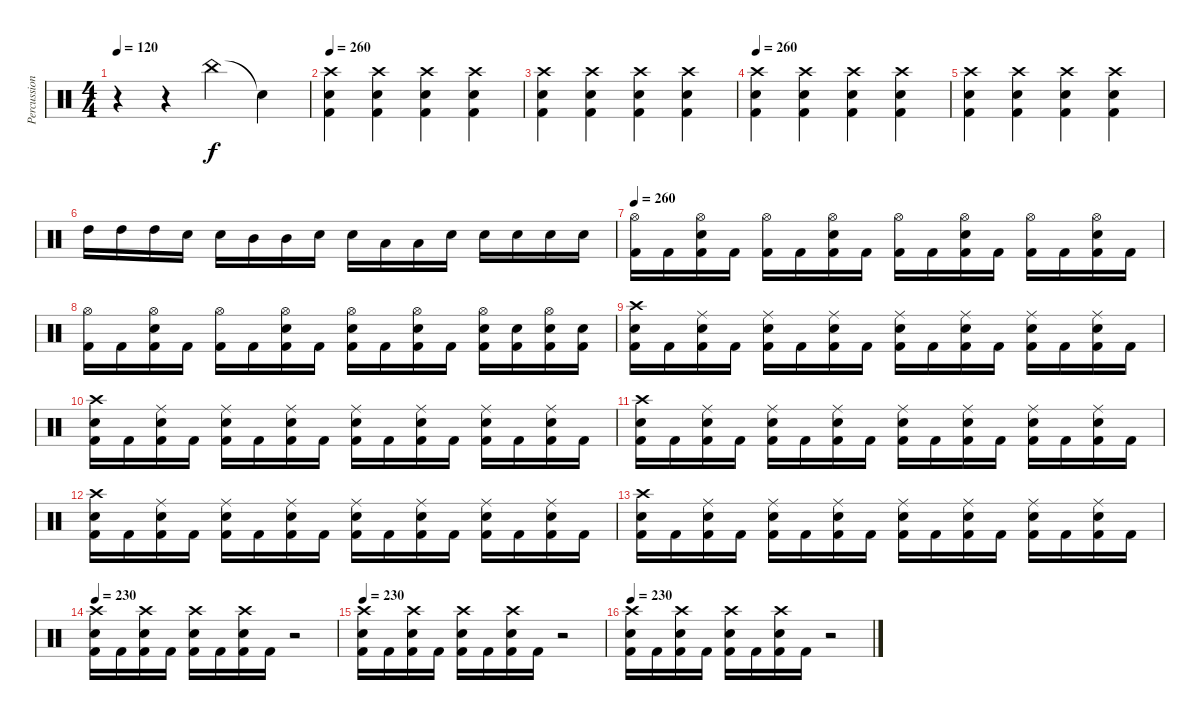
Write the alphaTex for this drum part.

\track ("Percussion" "Percussion") {instrument percussion}
\staff {score}
\articulation defaults
\ts (4 4)
\tempo 120
\clef neutral
\ks c
r.4{dy f} r.4 "China (hit)".4 "Snare (hit)"{t}.4 |
\tempo 260
("Crash high (hit)" "Electric Snare (hit)" "Kick (hit) 2").4 ("Crash high (hit)" "Electric Snare (hit)" "Kick (hit) 2").4 ("Crash high (hit)" "Electric Snare (hit)" "Kick (hit) 2").4 ("Crash high (hit)" "Electric Snare (hit)" "Kick (hit) 2").4 |
("Crash high (hit)" "Electric Snare (hit)" "Kick (hit) 2").4 ("Crash high (hit)" "Electric Snare (hit)" "Kick (hit) 2").4 ("Crash high (hit)" "Electric Snare (hit)" "Kick (hit) 2").4 ("Crash high (hit)" "Electric Snare (hit)" "Kick (hit) 2").4 |
\tempo 260
("Crash high (hit)" "Electric Snare (hit)" "Kick (hit) 2").4 ("Crash high (hit)" "Electric Snare (hit)" "Kick (hit) 2").4 ("Crash high (hit)" "Electric Snare (hit)" "Kick (hit) 2").4 ("Crash high (hit)" "Electric Snare (hit)" "Kick (hit) 2").4 |
("Crash high (hit)" "Electric Snare (hit)" "Kick (hit) 2").4 ("Crash high (hit)" "Electric Snare (hit)" "Kick (hit) 2").4 ("Crash high (hit)" "Electric Snare (hit)" "Kick (hit) 2").4 ("Crash high (hit)" "Electric Snare (hit)" "Kick (hit) 2").4 |
"High Tom (hit)".16 "High Tom (hit)".16 "High Tom (hit)".16 "Electric Snare (hit)".16 "Electric Snare (hit)".16 "Mid Tom (hit)".16 "Mid Tom (hit)".16 "Electric Snare (hit)".16 "Electric Snare (hit)".16 "Low Tom (hit)".16 "Low Tom (hit)".16 "Electric Snare (hit)".16 "Electric Snare (hit)".16 "Electric Snare (hit)".16 "Electric Snare (hit)".16 "Electric Snare (hit)".16 |
\tempo 260
("Hi-Hat (open)" "Kick (hit) 2").16 "Kick (hit) 2".16 ("Hi-Hat (open)" "Electric Snare (hit)" "Kick (hit) 2").16 "Kick (hit) 2".16 ("Hi-Hat (open)" "Kick (hit) 2").16 "Kick (hit) 2".16 ("Hi-Hat (open)" "Electric Snare (hit)" "Kick (hit) 2").16 "Kick (hit) 2".16 ("Hi-Hat (open)" "Kick (hit) 2").16 "Kick (hit) 2".16 ("Hi-Hat (open)" "Electric Snare (hit)" "Kick (hit) 2").16 "Kick (hit) 2".16 ("Hi-Hat (open)" "Kick (hit) 2").16 "Kick (hit) 2".16 ("Hi-Hat (open)" "Electric Snare (hit)" "Kick (hit) 2").16 "Kick (hit) 2".16 |
("Hi-Hat (open)" "Kick (hit) 2").16 "Kick (hit) 2".16 ("Hi-Hat (open)" "Electric Snare (hit)" "Kick (hit) 2").16 "Kick (hit) 2".16 ("Hi-Hat (open)" "Kick (hit) 2").16 "Kick (hit) 2".16 ("Hi-Hat (open)" "Electric Snare (hit)" "Kick (hit) 2").16 "Kick (hit) 2".16 ("Hi-Hat (open)" "Electric Snare (hit)" "Kick (hit) 2").16 "Kick (hit) 2".16 ("Hi-Hat (open)" "Electric Snare (hit)" "Kick (hit) 2").16 "Kick (hit) 2".16 ("Hi-Hat (open)" "Electric Snare (hit)" "Kick (hit) 2").16 ("Electric Snare (hit)" "Kick (hit) 2").16 ("Hi-Hat (open)" "Electric Snare (hit)" "Kick (hit) 2").16 ("Electric Snare (hit)" "Kick (hit) 2").16 |
("Crash high (hit)" "Electric Snare (hit)" "Kick (hit) 2").16 "Kick (hit) 2".16 ("Ride (middle)" "Electric Snare (hit)" "Kick (hit) 2").16 "Kick (hit) 2".16 ("Ride (middle)" "Electric Snare (hit)" "Kick (hit) 2").16 "Kick (hit) 2".16 ("Ride (middle)" "Electric Snare (hit)" "Kick (hit) 2").16 "Kick (hit) 2".16 ("Ride (middle)" "Electric Snare (hit)" "Kick (hit) 2").16 "Kick (hit) 2".16 ("Ride (middle)" "Electric Snare (hit)" "Kick (hit) 2").16 "Kick (hit) 2".16 ("Ride (middle)" "Electric Snare (hit)" "Kick (hit) 2").16 "Kick (hit) 2".16 ("Ride (middle)" "Electric Snare (hit)" "Kick (hit) 2").16 "Kick (hit) 2".16 |
("Crash high (hit)" "Electric Snare (hit)" "Kick (hit) 2").16 "Kick (hit) 2".16 ("Ride (middle)" "Electric Snare (hit)" "Kick (hit) 2").16 "Kick (hit) 2".16 ("Ride (middle)" "Electric Snare (hit)" "Kick (hit) 2").16 "Kick (hit) 2".16 ("Ride (middle)" "Electric Snare (hit)" "Kick (hit) 2").16 "Kick (hit) 2".16 ("Ride (middle)" "Electric Snare (hit)" "Kick (hit) 2").16 "Kick (hit) 2".16 ("Ride (middle)" "Electric Snare (hit)" "Kick (hit) 2").16 "Kick (hit) 2".16 ("Ride (middle)" "Electric Snare (hit)" "Kick (hit) 2").16 "Kick (hit) 2".16 ("Ride (middle)" "Electric Snare (hit)" "Kick (hit) 2").16 "Kick (hit) 2".16 |
("Crash high (hit)" "Electric Snare (hit)" "Kick (hit) 2").16 "Kick (hit) 2".16 ("Ride (middle)" "Electric Snare (hit)" "Kick (hit) 2").16 "Kick (hit) 2".16 ("Ride (middle)" "Electric Snare (hit)" "Kick (hit) 2").16 "Kick (hit) 2".16 ("Ride (middle)" "Electric Snare (hit)" "Kick (hit) 2").16 "Kick (hit) 2".16 ("Ride (middle)" "Electric Snare (hit)" "Kick (hit) 2").16 "Kick (hit) 2".16 ("Ride (middle)" "Electric Snare (hit)" "Kick (hit) 2").16 "Kick (hit) 2".16 ("Ride (middle)" "Electric Snare (hit)" "Kick (hit) 2").16 "Kick (hit) 2".16 ("Ride (middle)" "Electric Snare (hit)" "Kick (hit) 2").16 "Kick (hit) 2".16 |
("Crash high (hit)" "Electric Snare (hit)" "Kick (hit) 2").16 "Kick (hit) 2".16 ("Ride (middle)" "Electric Snare (hit)" "Kick (hit) 2").16 "Kick (hit) 2".16 ("Ride (middle)" "Electric Snare (hit)" "Kick (hit) 2").16 "Kick (hit) 2".16 ("Ride (middle)" "Electric Snare (hit)" "Kick (hit) 2").16 "Kick (hit) 2".16 ("Ride (middle)" "Electric Snare (hit)" "Kick (hit) 2").16 "Kick (hit) 2".16 ("Ride (middle)" "Electric Snare (hit)" "Kick (hit) 2").16 "Kick (hit) 2".16 ("Ride (middle)" "Electric Snare (hit)" "Kick (hit) 2").16 "Kick (hit) 2".16 ("Ride (middle)" "Electric Snare (hit)" "Kick (hit) 2").16 "Kick (hit) 2".16 |
("Crash high (hit)" "Electric Snare (hit)" "Kick (hit) 2").16 "Kick (hit) 2".16 ("Ride (middle)" "Electric Snare (hit)" "Kick (hit) 2").16 "Kick (hit) 2".16 ("Ride (middle)" "Electric Snare (hit)" "Kick (hit) 2").16 "Kick (hit) 2".16 ("Ride (middle)" "Electric Snare (hit)" "Kick (hit) 2").16 "Kick (hit) 2".16 ("Ride (middle)" "Electric Snare (hit)" "Kick (hit) 2").16 "Kick (hit) 2".16 ("Ride (middle)" "Electric Snare (hit)" "Kick (hit) 2").16 "Kick (hit) 2".16 ("Ride (middle)" "Electric Snare (hit)" "Kick (hit) 2").16 "Kick (hit) 2".16 ("Ride (middle)" "Electric Snare (hit)" "Kick (hit) 2").16 "Kick (hit) 2".16 |
\tempo 230
("Crash high (hit)" "Electric Snare (hit)" "Kick (hit) 2").16 "Kick (hit) 2".16 ("Crash high (hit)" "Electric Snare (hit)" "Kick (hit) 2").16 "Kick (hit) 2".16 ("Crash high (hit)" "Electric Snare (hit)" "Kick (hit) 2").16 "Kick (hit) 2".16 ("Crash high (hit)" "Electric Snare (hit)" "Kick (hit) 2").16 "Kick (hit) 2".16 r.2 |
\tempo 230
("Crash high (hit)" "Electric Snare (hit)" "Kick (hit) 2").16 "Kick (hit) 2".16 ("Crash high (hit)" "Electric Snare (hit)" "Kick (hit) 2").16 "Kick (hit) 2".16 ("Crash high (hit)" "Electric Snare (hit)" "Kick (hit) 2").16 "Kick (hit) 2".16 ("Crash high (hit)" "Electric Snare (hit)" "Kick (hit) 2").16 "Kick (hit) 2".16 r.2 |
\tempo 230
("Crash high (hit)" "Electric Snare (hit)" "Kick (hit) 2").16 "Kick (hit) 2".16 ("Crash high (hit)" "Electric Snare (hit)" "Kick (hit) 2").16 "Kick (hit) 2".16 ("Crash high (hit)" "Electric Snare (hit)" "Kick (hit) 2").16 "Kick (hit) 2".16 ("Crash high (hit)" "Electric Snare (hit)" "Kick (hit) 2").16 "Kick (hit) 2".16 r.2
